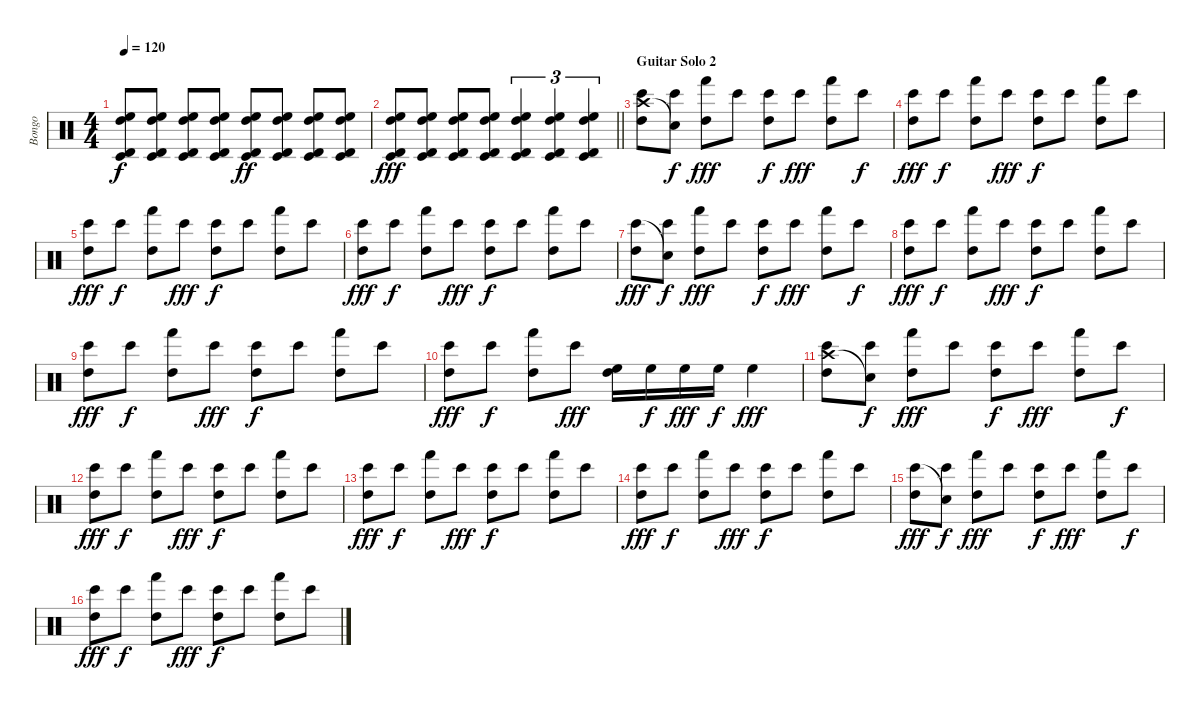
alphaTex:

\track ("Bongo" "Bongo") {instrument percussion}
\staff {score}
\articulation defaults
\ts (4 4)
\tempo 120
\clef neutral
\ks c
("Timbale low (hit)" "Timbale high (hit)" "High Floor Tom (hit)" "High Tom (hit)").8{dy f} ("Timbale low (hit)" "Timbale high (hit)" "High Floor Tom (hit)" "High Tom (hit)").8 ("Timbale low (hit)" "Timbale high (hit)" "High Floor Tom (hit)" "High Tom (hit)").8 ("Timbale low (hit)" "Timbale high (hit)" "High Floor Tom (hit)" "High Tom (hit)").8 ("Timbale low (hit)" "Timbale high (hit)" "High Floor Tom (hit)" "High Tom (hit)").8{dy ff} ("Timbale low (hit)" "Timbale high (hit)" "High Floor Tom (hit)" "High Tom (hit)").8 ("Timbale low (hit)" "Timbale high (hit)" "High Floor Tom (hit)" "High Tom (hit)").8 ("Timbale low (hit)" "Timbale high (hit)" "High Floor Tom (hit)" "High Tom (hit)").8 |
\barLineRight lightlight
("Timbale low (hit)" "Timbale high (hit)" "High Floor Tom (hit)" "High Tom (hit)").8{dy fff} ("Timbale low (hit)" "Timbale high (hit)" "High Floor Tom (hit)" "High Tom (hit)").8 ("Timbale low (hit)" "Timbale high (hit)" "High Floor Tom (hit)" "High Tom (hit)").8 ("Timbale low (hit)" "Timbale high (hit)" "High Floor Tom (hit)" "High Tom (hit)").8 ("Timbale low (hit)" "Timbale high (hit)" "High Floor Tom (hit)" "High Tom (hit)").4{tu (3 2)} ("Timbale low (hit)" "Timbale high (hit)" "High Floor Tom (hit)" "High Tom (hit)").4{tu (3 2)} ("Timbale low (hit)" "Timbale high (hit)" "High Floor Tom (hit)" "High Tom (hit)").4{tu (3 2)} |
\section ("" "Guitar Solo 2")
("Crash high (hit)" "Bongo High (hit)" "High Tom (hit)").8 ("Snare (hit)"{t} "Bongo High (hit)").8{dy f} ("Hand (hit)" "High Tom (hit)").8{dy fff} "Bongo High (hit)".8 ("Bongo High (hit)" "High Tom (hit)").8{dy f} "Bongo High (hit)".8{dy fff} ("Hand (hit)" "High Tom (hit)").8 "Bongo High (hit)".8{dy f} |
("Bongo High (hit)" "High Tom (hit)").8{dy fff} "Bongo High (hit)".8{dy f} ("Hand (hit)" "High Tom (hit)").8 "Bongo High (hit)".8{dy fff} ("Bongo High (hit)" "High Tom (hit)").8{dy f} "Bongo High (hit)".8 ("Hand (hit)" "High Tom (hit)").8 "Bongo High (hit)".8 |
("Bongo High (hit)" "High Tom (hit)").8{dy fff} "Bongo High (hit)".8{dy f} ("Hand (hit)" "High Tom (hit)").8 "Bongo High (hit)".8{dy fff} ("Bongo High (hit)" "High Tom (hit)").8{dy f} "Bongo High (hit)".8 ("Hand (hit)" "High Tom (hit)").8 "Bongo High (hit)".8 |
("Bongo High (hit)" "High Tom (hit)").8{dy fff} "Bongo High (hit)".8{dy f} ("Hand (hit)" "High Tom (hit)").8 "Bongo High (hit)".8{dy fff} ("Bongo High (hit)" "High Tom (hit)").8{dy f} "Bongo High (hit)".8 ("Hand (hit)" "High Tom (hit)").8 "Bongo High (hit)".8 |
("Bongo High (hit)" "High Tom (hit)").8{dy fff} ("Snare (hit)"{t} "Bongo High (hit)").8{dy f} ("Hand (hit)" "High Tom (hit)").8{dy fff} "Bongo High (hit)".8 ("Bongo High (hit)" "High Tom (hit)").8{dy f} "Bongo High (hit)".8{dy fff} ("Hand (hit)" "High Tom (hit)").8 "Bongo High (hit)".8{dy f} |
("Bongo High (hit)" "High Tom (hit)").8{dy fff} "Bongo High (hit)".8{dy f} ("Hand (hit)" "High Tom (hit)").8 "Bongo High (hit)".8{dy fff} ("Bongo High (hit)" "High Tom (hit)").8{dy f} "Bongo High (hit)".8 ("Hand (hit)" "High Tom (hit)").8 "Bongo High (hit)".8 |
("Bongo High (hit)" "High Tom (hit)").8{dy fff} "Bongo High (hit)".8{dy f} ("Hand (hit)" "High Tom (hit)").8 "Bongo High (hit)".8{dy fff} ("Bongo High (hit)" "High Tom (hit)").8{dy f} "Bongo High (hit)".8 ("Hand (hit)" "High Tom (hit)").8 "Bongo High (hit)".8 |
("Bongo High (hit)" "High Tom (hit)").8{dy fff} "Bongo High (hit)".8{dy f} ("Hand (hit)" "High Tom (hit)").8 "Bongo High (hit)".8{dy fff} ("High Floor Tom (hit)" "High Tom (hit)").16 "High Floor Tom (hit)".16{dy f} "High Floor Tom (hit)".16{dy fff} "High Floor Tom (hit)".16{dy f} "High Floor Tom (hit)".4{dy fff} |
("Crash high (hit)" "Bongo High (hit)" "High Tom (hit)").8 ("Snare (hit)"{t} "Bongo High (hit)").8{dy f} ("Hand (hit)" "High Tom (hit)").8{dy fff} "Bongo High (hit)".8 ("Bongo High (hit)" "High Tom (hit)").8{dy f} "Bongo High (hit)".8{dy fff} ("Hand (hit)" "High Tom (hit)").8 "Bongo High (hit)".8{dy f} |
("Bongo High (hit)" "High Tom (hit)").8{dy fff} "Bongo High (hit)".8{dy f} ("Hand (hit)" "High Tom (hit)").8 "Bongo High (hit)".8{dy fff} ("Bongo High (hit)" "High Tom (hit)").8{dy f} "Bongo High (hit)".8 ("Hand (hit)" "High Tom (hit)").8 "Bongo High (hit)".8 |
("Bongo High (hit)" "High Tom (hit)").8{dy fff} "Bongo High (hit)".8{dy f} ("Hand (hit)" "High Tom (hit)").8 "Bongo High (hit)".8{dy fff} ("Bongo High (hit)" "High Tom (hit)").8{dy f} "Bongo High (hit)".8 ("Hand (hit)" "High Tom (hit)").8 "Bongo High (hit)".8 |
("Bongo High (hit)" "High Tom (hit)").8{dy fff} "Bongo High (hit)".8{dy f} ("Hand (hit)" "High Tom (hit)").8 "Bongo High (hit)".8{dy fff} ("Bongo High (hit)" "High Tom (hit)").8{dy f} "Bongo High (hit)".8 ("Hand (hit)" "High Tom (hit)").8 "Bongo High (hit)".8 |
("Bongo High (hit)" "High Tom (hit)").8{dy fff} ("Snare (hit)"{t} "Bongo High (hit)").8{dy f} ("Hand (hit)" "High Tom (hit)").8{dy fff} "Bongo High (hit)".8 ("Bongo High (hit)" "High Tom (hit)").8{dy f} "Bongo High (hit)".8{dy fff} ("Hand (hit)" "High Tom (hit)").8 "Bongo High (hit)".8{dy f} |
("Bongo High (hit)" "High Tom (hit)").8{dy fff} "Bongo High (hit)".8{dy f} ("Hand (hit)" "High Tom (hit)").8 "Bongo High (hit)".8{dy fff} ("Bongo High (hit)" "High Tom (hit)").8{dy f} "Bongo High (hit)".8 ("Hand (hit)" "High Tom (hit)").8 "Bongo High (hit)".8
